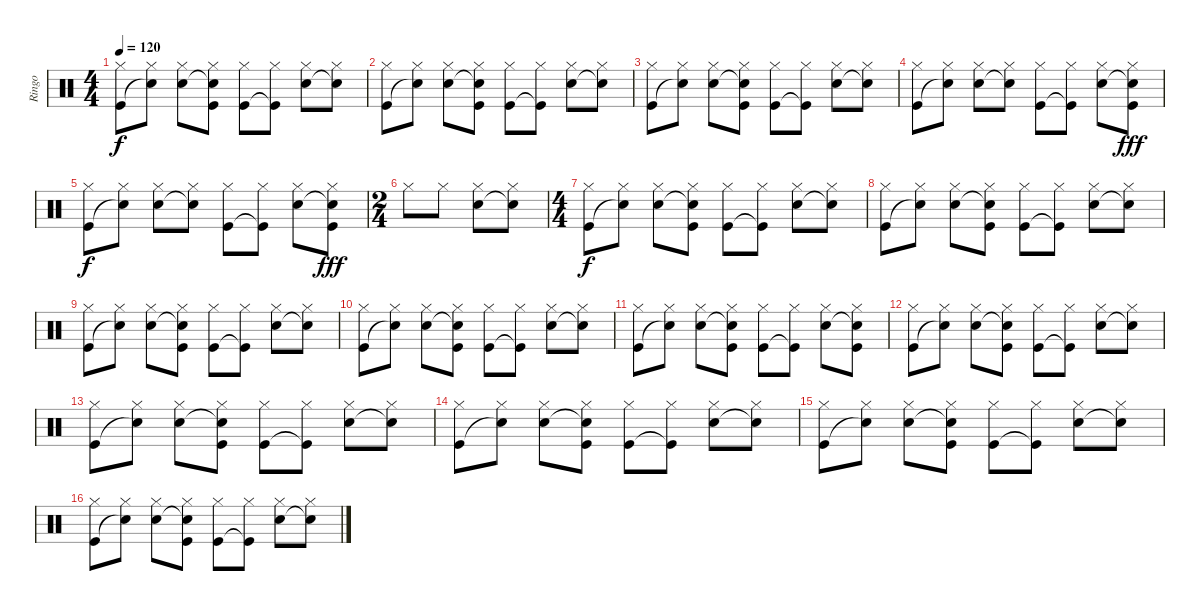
\track ("Ringo" "Ringo") {instrument percussion}
\staff {score}
\articulation defaults
\ts (4 4)
\tempo 120
\clef neutral
\ks c
("Hi-Hat (closed)" "Kick (hit)").8{dy f} ("Hi-Hat (closed)" "Snare (hit)"{t}).8 ("Hi-Hat (closed)" "Snare (hit) 2").8 ("Hi-Hat (closed)" "Snare (hit)"{t} "Kick (hit)").8 ("Hi-Hat (closed)" "Kick (hit)").8 ("Hi-Hat (closed)" "Kick (hit)"{t}).8 ("Hi-Hat (closed)" "Snare (hit) 2").8 ("Hi-Hat (closed)" "Snare (hit)"{t}).8 |
("Hi-Hat (closed)" "Kick (hit)").8 ("Hi-Hat (closed)" "Snare (hit)"{t}).8 ("Hi-Hat (closed)" "Snare (hit) 2").8 ("Hi-Hat (closed)" "Snare (hit)"{t} "Kick (hit)").8 ("Hi-Hat (closed)" "Kick (hit)").8 ("Hi-Hat (closed)" "Kick (hit)"{t}).8 ("Hi-Hat (closed)" "Snare (hit) 2").8 ("Hi-Hat (closed)" "Snare (hit)"{t}).8 |
("Hi-Hat (closed)" "Kick (hit)").8 ("Hi-Hat (closed)" "Snare (hit)"{t}).8 ("Hi-Hat (closed)" "Snare (hit) 2").8 ("Hi-Hat (closed)" "Snare (hit)"{t} "Kick (hit)").8 ("Hi-Hat (closed)" "Kick (hit)").8 ("Hi-Hat (closed)" "Kick (hit)"{t}).8 ("Hi-Hat (closed)" "Snare (hit) 2").8 ("Hi-Hat (closed)" "Snare (hit)"{t}).8 |
("Hi-Hat (closed)" "Kick (hit)").8 ("Hi-Hat (closed)" "Snare (hit)"{t}).8 ("Hi-Hat (closed)" "Snare (hit) 2").8 ("Hi-Hat (closed)" "Snare (hit)"{t}).8 ("Hi-Hat (closed)" "Kick (hit)").8 ("Hi-Hat (closed)" "Kick (hit)"{t}).8 ("Hi-Hat (closed)" "Snare (hit) 2").8 ("Hi-Hat (closed)" "Snare (hit)"{t} "Kick (hit)").8{dy fff} |
("Hi-Hat (closed)" "Kick (hit)").8{dy f} ("Hi-Hat (closed)" "Snare (hit)"{t}).8 ("Hi-Hat (closed)" "Snare (hit) 2").8 ("Hi-Hat (closed)" "Snare (hit)"{t}).8 ("Hi-Hat (closed)" "Kick (hit)").8 ("Hi-Hat (closed)" "Kick (hit)"{t}).8 ("Hi-Hat (closed)" "Snare (hit) 2").8 ("Hi-Hat (closed)" "Snare (hit)"{t} "Kick (hit)").8{dy fff} |
\ts (2 4)
"Hi-Hat (closed)".8 "Hi-Hat (closed)".8 ("Hi-Hat (closed)" "Snare (hit) 2").8 ("Hi-Hat (closed)" "Snare (hit)"{t}).8 |
\ts (4 4)
("Hi-Hat (closed)" "Kick (hit)").8{dy f} ("Hi-Hat (closed)" "Snare (hit)"{t}).8 ("Hi-Hat (closed)" "Snare (hit) 2").8 ("Hi-Hat (closed)" "Snare (hit)"{t} "Kick (hit)").8 ("Hi-Hat (closed)" "Kick (hit)").8 ("Hi-Hat (closed)" "Kick (hit)"{t}).8 ("Hi-Hat (closed)" "Snare (hit) 2").8 ("Hi-Hat (closed)" "Snare (hit)"{t}).8 |
("Hi-Hat (closed)" "Kick (hit)").8 ("Hi-Hat (closed)" "Snare (hit)"{t}).8 ("Hi-Hat (closed)" "Snare (hit) 2").8 ("Hi-Hat (closed)" "Snare (hit)"{t} "Kick (hit)").8 ("Hi-Hat (closed)" "Kick (hit)").8 ("Hi-Hat (closed)" "Kick (hit)"{t}).8 ("Hi-Hat (closed)" "Snare (hit) 2").8 ("Hi-Hat (closed)" "Snare (hit)"{t}).8 |
("Hi-Hat (closed)" "Kick (hit)").8 ("Hi-Hat (closed)" "Snare (hit)"{t}).8 ("Hi-Hat (closed)" "Snare (hit) 2").8 ("Hi-Hat (closed)" "Snare (hit)"{t} "Kick (hit)").8 ("Hi-Hat (closed)" "Kick (hit)").8 ("Hi-Hat (closed)" "Kick (hit)"{t}).8 ("Hi-Hat (closed)" "Snare (hit) 2").8 ("Hi-Hat (closed)" "Snare (hit)"{t}).8 |
("Hi-Hat (closed)" "Kick (hit)").8 ("Hi-Hat (closed)" "Snare (hit)"{t}).8 ("Hi-Hat (closed)" "Snare (hit) 2").8 ("Hi-Hat (closed)" "Snare (hit)"{t} "Kick (hit)").8 ("Hi-Hat (closed)" "Kick (hit)").8 ("Hi-Hat (closed)" "Kick (hit)"{t}).8 ("Hi-Hat (closed)" "Snare (hit) 2").8 ("Hi-Hat (closed)" "Snare (hit)"{t}).8 |
("Hi-Hat (closed)" "Kick (hit)").8 ("Hi-Hat (closed)" "Snare (hit)"{t}).8 ("Hi-Hat (closed)" "Snare (hit) 2").8 ("Hi-Hat (closed)" "Snare (hit)"{t} "Kick (hit)").8 ("Hi-Hat (closed)" "Kick (hit)").8 ("Hi-Hat (closed)" "Kick (hit)"{t}).8 ("Hi-Hat (closed)" "Snare (hit) 2").8 ("Hi-Hat (closed)" "Snare (hit)"{t} "Kick (hit)").8 |
("Hi-Hat (closed)" "Kick (hit)").8 ("Hi-Hat (closed)" "Snare (hit)"{t}).8 ("Hi-Hat (closed)" "Snare (hit) 2").8 ("Hi-Hat (closed)" "Snare (hit)"{t} "Kick (hit)").8 ("Hi-Hat (closed)" "Kick (hit)").8 ("Hi-Hat (closed)" "Kick (hit)"{t}).8 ("Hi-Hat (closed)" "Snare (hit) 2").8 ("Hi-Hat (closed)" "Snare (hit)"{t}).8 |
("Hi-Hat (closed)" "Kick (hit)").8 ("Hi-Hat (closed)" "Snare (hit)"{t}).8 ("Hi-Hat (closed)" "Snare (hit) 2").8 ("Hi-Hat (closed)" "Snare (hit)"{t} "Kick (hit)").8 ("Hi-Hat (closed)" "Kick (hit)").8 ("Hi-Hat (closed)" "Kick (hit)"{t}).8 ("Hi-Hat (closed)" "Snare (hit) 2").8 ("Hi-Hat (closed)" "Snare (hit)"{t}).8 |
("Hi-Hat (closed)" "Kick (hit)").8 ("Hi-Hat (closed)" "Snare (hit)"{t}).8 ("Hi-Hat (closed)" "Snare (hit) 2").8 ("Hi-Hat (closed)" "Snare (hit)"{t} "Kick (hit)").8 ("Hi-Hat (closed)" "Kick (hit)").8 ("Hi-Hat (closed)" "Kick (hit)"{t}).8 ("Hi-Hat (closed)" "Snare (hit) 2").8 ("Hi-Hat (closed)" "Snare (hit)"{t}).8 |
("Hi-Hat (closed)" "Kick (hit)").8 ("Hi-Hat (closed)" "Snare (hit)"{t}).8 ("Hi-Hat (closed)" "Snare (hit) 2").8 ("Hi-Hat (closed)" "Snare (hit)"{t} "Kick (hit)").8 ("Hi-Hat (closed)" "Kick (hit)").8 ("Hi-Hat (closed)" "Kick (hit)"{t}).8 ("Hi-Hat (closed)" "Snare (hit) 2").8 ("Hi-Hat (closed)" "Snare (hit)"{t}).8 |
("Hi-Hat (closed)" "Kick (hit)").8 ("Hi-Hat (closed)" "Snare (hit)"{t}).8 ("Hi-Hat (closed)" "Snare (hit) 2").8 ("Hi-Hat (closed)" "Snare (hit)"{t} "Kick (hit)").8 ("Hi-Hat (closed)" "Kick (hit)").8 ("Hi-Hat (closed)" "Kick (hit)"{t}).8 ("Hi-Hat (closed)" "Snare (hit) 2").8 ("Hi-Hat (closed)" "Snare (hit)"{t}).8
